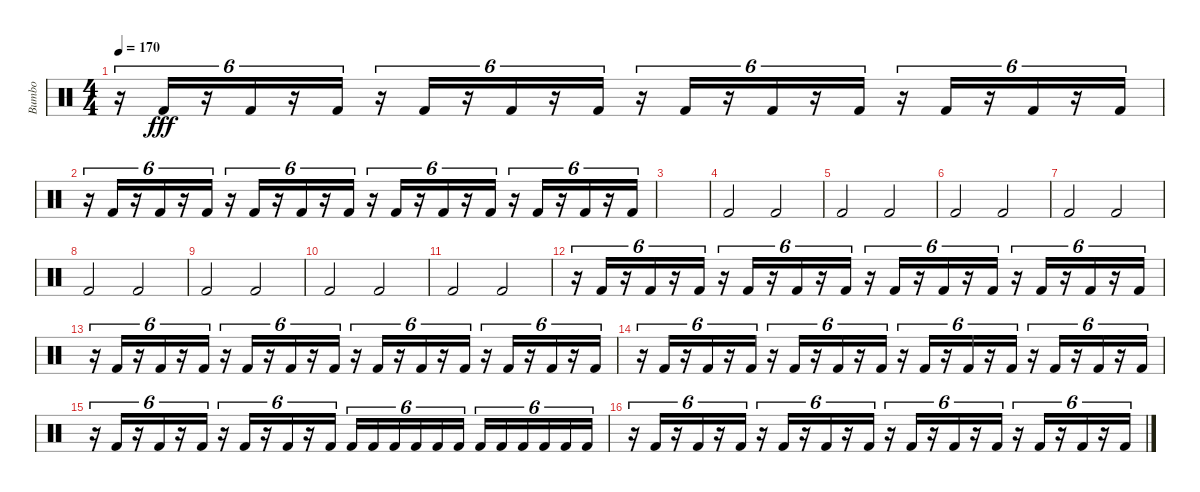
\track ("Bumbo" "Bumbo") {instrument percussion}
\staff {score}
\articulation defaults
\ts (4 4)
\tempo 170
\clef neutral
\ks c
r.16{tu (6 4) dy fff} "Kick (hit) 2".16{tu (6 4)} r.16{tu (6 4)} "Kick (hit) 2".16{tu (6 4)} r.16{tu (6 4)} "Kick (hit) 2".16{tu (6 4)} r.16{tu (6 4)} "Kick (hit) 2".16{tu (6 4)} r.16{tu (6 4)} "Kick (hit) 2".16{tu (6 4)} r.16{tu (6 4)} "Kick (hit) 2".16{tu (6 4)} r.16{tu (6 4)} "Kick (hit) 2".16{tu (6 4)} r.16{tu (6 4)} "Kick (hit) 2".16{tu (6 4)} r.16{tu (6 4)} "Kick (hit) 2".16{tu (6 4)} r.16{tu (6 4)} "Kick (hit) 2".16{tu (6 4)} r.16{tu (6 4)} "Kick (hit) 2".16{tu (6 4)} r.16{tu (6 4)} "Kick (hit) 2".16{tu (6 4)} |
r.16{tu (6 4)} "Kick (hit) 2".16{tu (6 4)} r.16{tu (6 4)} "Kick (hit) 2".16{tu (6 4)} r.16{tu (6 4)} "Kick (hit) 2".16{tu (6 4)} r.16{tu (6 4)} "Kick (hit) 2".16{tu (6 4)} r.16{tu (6 4)} "Kick (hit) 2".16{tu (6 4)} r.16{tu (6 4)} "Kick (hit) 2".16{tu (6 4)} r.16{tu (6 4)} "Kick (hit) 2".16{tu (6 4)} r.16{tu (6 4)} "Kick (hit) 2".16{tu (6 4)} r.16{tu (6 4)} "Kick (hit) 2".16{tu (6 4)} r.16{tu (6 4)} "Kick (hit) 2".16{tu (6 4)} r.16{tu (6 4)} "Kick (hit) 2".16{tu (6 4)} r.16{tu (6 4)} "Kick (hit) 2".16{tu (6 4)} |
|
"Kick (hit) 2".2 "Kick (hit) 2".2 |
"Kick (hit) 2".2 "Kick (hit) 2".2 |
"Kick (hit) 2".2 "Kick (hit) 2".2 |
"Kick (hit) 2".2 "Kick (hit) 2".2 |
"Kick (hit) 2".2 "Kick (hit) 2".2 |
"Kick (hit) 2".2 "Kick (hit) 2".2 |
"Kick (hit) 2".2 "Kick (hit) 2".2 |
"Kick (hit) 2".2 "Kick (hit) 2".2 |
r.16{tu (6 4)} "Kick (hit) 2".16{tu (6 4)} r.16{tu (6 4)} "Kick (hit) 2".16{tu (6 4)} r.16{tu (6 4)} "Kick (hit) 2".16{tu (6 4)} r.16{tu (6 4)} "Kick (hit) 2".16{tu (6 4)} r.16{tu (6 4)} "Kick (hit) 2".16{tu (6 4)} r.16{tu (6 4)} "Kick (hit) 2".16{tu (6 4)} r.16{tu (6 4)} "Kick (hit) 2".16{tu (6 4)} r.16{tu (6 4)} "Kick (hit) 2".16{tu (6 4)} r.16{tu (6 4)} "Kick (hit) 2".16{tu (6 4)} r.16{tu (6 4)} "Kick (hit) 2".16{tu (6 4)} r.16{tu (6 4)} "Kick (hit) 2".16{tu (6 4)} r.16{tu (6 4)} "Kick (hit) 2".16{tu (6 4)} |
r.16{tu (6 4)} "Kick (hit) 2".16{tu (6 4)} r.16{tu (6 4)} "Kick (hit) 2".16{tu (6 4)} r.16{tu (6 4)} "Kick (hit) 2".16{tu (6 4)} r.16{tu (6 4)} "Kick (hit) 2".16{tu (6 4)} r.16{tu (6 4)} "Kick (hit) 2".16{tu (6 4)} r.16{tu (6 4)} "Kick (hit) 2".16{tu (6 4)} r.16{tu (6 4)} "Kick (hit) 2".16{tu (6 4)} r.16{tu (6 4)} "Kick (hit) 2".16{tu (6 4)} r.16{tu (6 4)} "Kick (hit) 2".16{tu (6 4)} r.16{tu (6 4)} "Kick (hit) 2".16{tu (6 4)} r.16{tu (6 4)} "Kick (hit) 2".16{tu (6 4)} r.16{tu (6 4)} "Kick (hit) 2".16{tu (6 4)} |
r.16{tu (6 4)} "Kick (hit) 2".16{tu (6 4)} r.16{tu (6 4)} "Kick (hit) 2".16{tu (6 4)} r.16{tu (6 4)} "Kick (hit) 2".16{tu (6 4)} r.16{tu (6 4)} "Kick (hit) 2".16{tu (6 4)} r.16{tu (6 4)} "Kick (hit) 2".16{tu (6 4)} r.16{tu (6 4)} "Kick (hit) 2".16{tu (6 4)} r.16{tu (6 4)} "Kick (hit) 2".16{tu (6 4)} r.16{tu (6 4)} "Kick (hit) 2".16{tu (6 4)} r.16{tu (6 4)} "Kick (hit) 2".16{tu (6 4)} r.16{tu (6 4)} "Kick (hit) 2".16{tu (6 4)} r.16{tu (6 4)} "Kick (hit) 2".16{tu (6 4)} r.16{tu (6 4)} "Kick (hit) 2".16{tu (6 4)} |
r.16{tu (6 4)} "Kick (hit) 2".16{tu (6 4)} r.16{tu (6 4)} "Kick (hit) 2".16{tu (6 4)} r.16{tu (6 4)} "Kick (hit) 2".16{tu (6 4)} r.16{tu (6 4)} "Kick (hit) 2".16{tu (6 4)} r.16{tu (6 4)} "Kick (hit) 2".16{tu (6 4)} r.16{tu (6 4)} "Kick (hit) 2".16{tu (6 4)} "Kick (hit) 2".16{tu (6 4)} "Kick (hit) 2".16{tu (6 4)} "Kick (hit) 2".16{tu (6 4)} "Kick (hit) 2".16{tu (6 4)} "Kick (hit) 2".16{tu (6 4)} "Kick (hit) 2".16{tu (6 4)} "Kick (hit) 2".16{tu (6 4)} "Kick (hit) 2".16{tu (6 4)} "Kick (hit) 2".16{tu (6 4)} "Kick (hit) 2".16{tu (6 4)} "Kick (hit) 2".16{tu (6 4)} "Kick (hit) 2".16{tu (6 4)} |
r.16{tu (6 4)} "Kick (hit) 2".16{tu (6 4)} r.16{tu (6 4)} "Kick (hit) 2".16{tu (6 4)} r.16{tu (6 4)} "Kick (hit) 2".16{tu (6 4)} r.16{tu (6 4)} "Kick (hit) 2".16{tu (6 4)} r.16{tu (6 4)} "Kick (hit) 2".16{tu (6 4)} r.16{tu (6 4)} "Kick (hit) 2".16{tu (6 4)} r.16{tu (6 4)} "Kick (hit) 2".16{tu (6 4)} r.16{tu (6 4)} "Kick (hit) 2".16{tu (6 4)} r.16{tu (6 4)} "Kick (hit) 2".16{tu (6 4)} r.16{tu (6 4)} "Kick (hit) 2".16{tu (6 4)} r.16{tu (6 4)} "Kick (hit) 2".16{tu (6 4)} r.16{tu (6 4)} "Kick (hit) 2".16{tu (6 4)}
